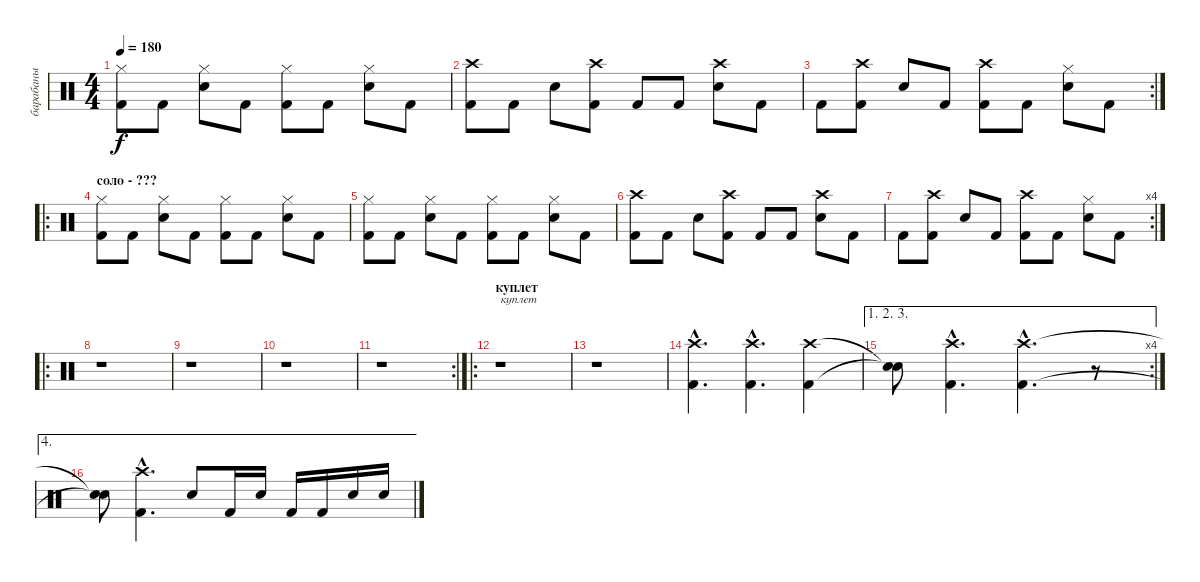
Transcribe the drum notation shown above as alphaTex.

\track ("барабаны" "барабаны") {instrument percussion}
\staff {score}
\articulation defaults
\ts (4 4)
\tempo 180
\clef neutral
\ks c
("Kick (hit) 2" "Hi-Hat (closed)").8{dy f} "Kick (hit) 2".8 ("Snare (hit) 2" "Hi-Hat (closed)").8 "Kick (hit) 2".8 ("Kick (hit) 2" "Hi-Hat (closed)").8 "Kick (hit) 2".8 ("Snare (hit) 2" "Hi-Hat (closed)").8 "Kick (hit) 2".8 |
("Kick (hit) 2" "Crash high (hit)").8 "Kick (hit) 2".8 "Snare (hit) 2".8 ("Kick (hit) 2" "Crash high (hit)").8 "Kick (hit) 2".8 "Kick (hit) 2".8 ("Snare (hit) 2" "Crash high (hit)").8 "Kick (hit) 2".8 |
\rc 2 "Kick (hit) 2".8
("Kick (hit) 2" "Crash high (hit)").8 "Snare (hit) 2".8 "Kick (hit) 2".8 ("Kick (hit) 2" "Crash high (hit)").8 "Kick (hit) 2".8 ("Snare (hit) 2" "Hi-Hat (closed)").8 "Kick (hit) 2".8 |
\ro
\section ("" "соло - ???")
("Kick (hit) 2" "Hi-Hat (closed)").8 "Kick (hit) 2".8 ("Snare (hit) 2" "Hi-Hat (closed)").8 "Kick (hit) 2".8 ("Kick (hit) 2" "Hi-Hat (closed)").8 "Kick (hit) 2".8 ("Snare (hit) 2" "Hi-Hat (closed)").8 "Kick (hit) 2".8 |
("Kick (hit) 2" "Hi-Hat (closed)").8 "Kick (hit) 2".8 ("Snare (hit) 2" "Hi-Hat (closed)").8 "Kick (hit) 2".8 ("Kick (hit) 2" "Hi-Hat (closed)").8 "Kick (hit) 2".8 ("Snare (hit) 2" "Hi-Hat (closed)").8 "Kick (hit) 2".8 |
("Kick (hit) 2" "Crash high (hit)").8 "Kick (hit) 2".8 "Snare (hit) 2".8 ("Kick (hit) 2" "Crash high (hit)").8 "Kick (hit) 2".8 "Kick (hit) 2".8 ("Snare (hit) 2" "Crash high (hit)").8 "Kick (hit) 2".8 |
\rc 4 "Kick (hit) 2".8
("Kick (hit) 2" "Crash high (hit)").8 "Snare (hit) 2".8 "Kick (hit) 2".8 ("Kick (hit) 2" "Crash high (hit)").8 "Kick (hit) 2".8 ("Snare (hit) 2" "Hi-Hat (closed)").8 "Kick (hit) 2".8 |
\ro
r.1 |
r.1 |
r.1 |
\rc 2
r.1 |
\ro
\section ("" "куплет")
r.1{txt "куплет"} |
r.1 |
("Kick (hit) 2"{hac} "Crash high (hit)"{hac}).4{d} ("Kick (hit) 2"{hac} "Crash high (hit)"{hac}).4{d} ("Kick (hit) 2" "Crash high (hit)").4 |
\ae (1 2 3)
\rc 4
("Snare (hit)"{t} "Snare (hit)"{t}).8 ("Kick (hit) 2"{hac} "Crash high (hit)"{hac}).4{d} ("Kick (hit) 2"{hac} "Crash high (hit)"{hac}).4{d} r.8 |
\ae 4
("Snare (hit)"{t} "Snare (hit)"{t}).8 ("Kick (hit) 2"{hac} "Crash high (hit)"{hac}).4{d} "Snare (hit) 2".8 "Kick (hit) 2".16 "Snare (hit) 2".16 "Kick (hit) 2".16 "Kick (hit) 2".16 "Snare (hit) 2".16 "Snare (hit) 2".16
